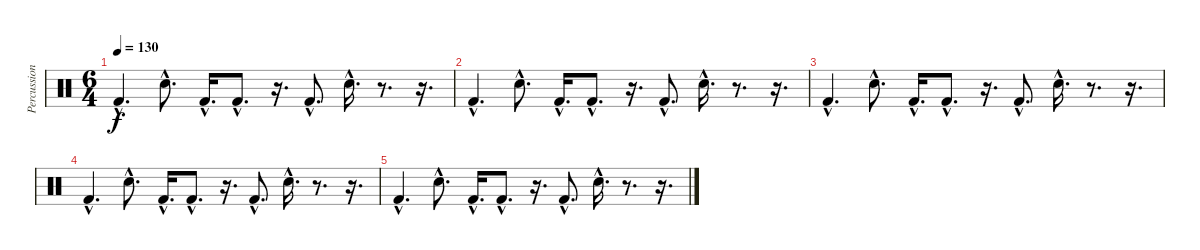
\track ("Percussion" "Percussion") {instrument percussion}
\staff {score}
\articulation defaults
\ts (6 4)
\tempo 130
\clef neutral
\ks c "Kick (hit) 2"{hac}.4{d dy f} "Snare (hit) 2"{hac}.8{d} "Kick (hit) 2"{hac}.16{d} "Kick (hit) 2"{hac}.8{d}
r.16{d} "Kick (hit) 2"{hac}.8{d} "Snare (hit) 2"{hac}.16{d} r.8{d} r.16{d} |
"Kick (hit) 2"{hac}.4{d} "Snare (hit) 2"{hac}.8{d} "Kick (hit) 2"{hac}.16{d} "Kick (hit) 2"{hac}.8{d} r.16{d} "Kick (hit) 2"{hac}.8{d} "Snare (hit) 2"{hac}.16{d} r.8{d} r.16{d} |
"Kick (hit) 2"{hac}.4{d} "Snare (hit) 2"{hac}.8{d} "Kick (hit) 2"{hac}.16{d} "Kick (hit) 2"{hac}.8{d} r.16{d} "Kick (hit) 2"{hac}.8{d} "Snare (hit) 2"{hac}.16{d} r.8{d} r.16{d} |
"Kick (hit) 2"{hac}.4{d} "Snare (hit) 2"{hac}.8{d} "Kick (hit) 2"{hac}.16{d} "Kick (hit) 2"{hac}.8{d} r.16{d} "Kick (hit) 2"{hac}.8{d} "Snare (hit) 2"{hac}.16{d} r.8{d} r.16{d} |
"Kick (hit) 2"{hac}.4{d} "Snare (hit) 2"{hac}.8{d} "Kick (hit) 2"{hac}.16{d} "Kick (hit) 2"{hac}.8{d} r.16{d} "Kick (hit) 2"{hac}.8{d} "Snare (hit) 2"{hac}.16{d} r.8{d} r.16{d}
